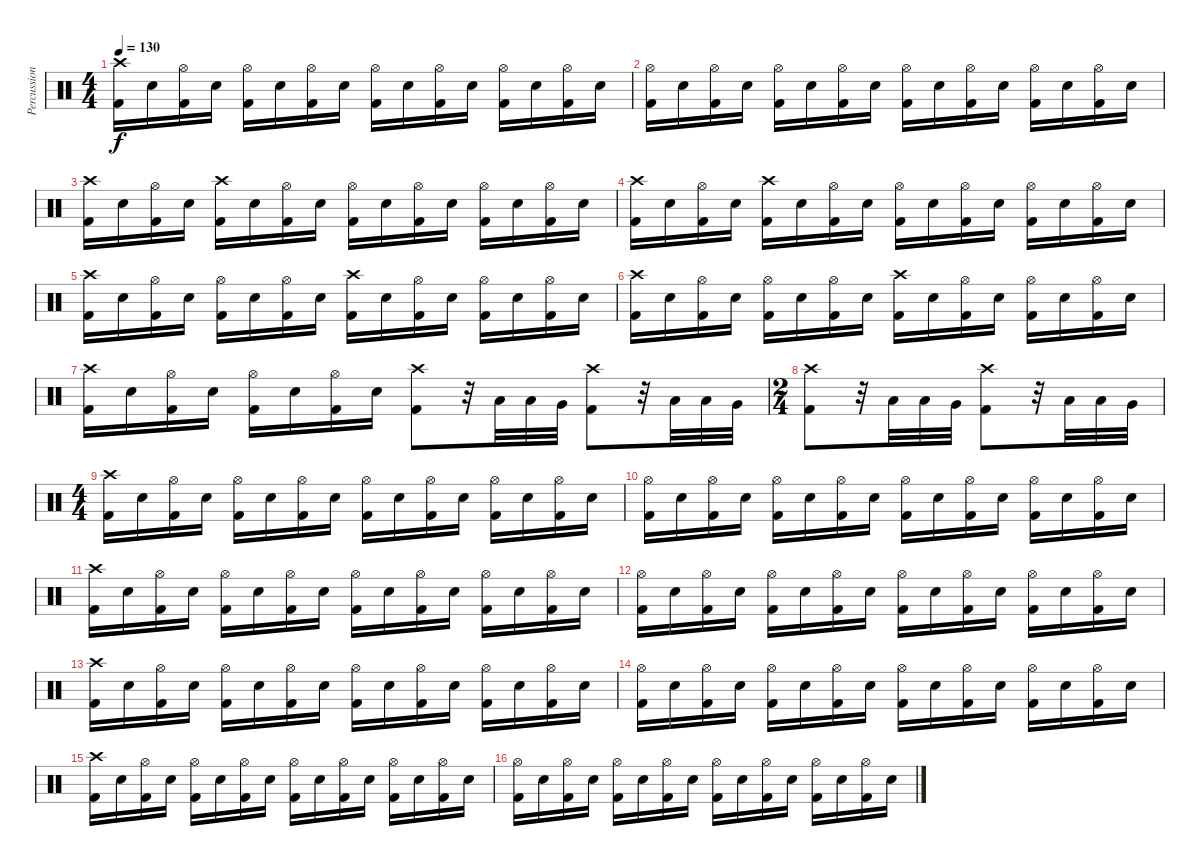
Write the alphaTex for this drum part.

\track ("Percussion" "Percussion") {instrument percussion}
\staff {score}
\articulation defaults
\ts (4 4)
\tempo 130
\clef neutral
\ks c
("Crash high (hit)" "Kick (hit) 2").16{dy f} "Snare (hit) 2".16 ("Hi-Hat (open)" "Kick (hit) 2").16 "Snare (hit) 2".16 ("Hi-Hat (open)" "Kick (hit) 2").16 "Snare (hit) 2".16 ("Hi-Hat (open)" "Kick (hit) 2").16 "Snare (hit) 2".16 ("Hi-Hat (open)" "Kick (hit) 2").16 "Snare (hit) 2".16 ("Hi-Hat (open)" "Kick (hit) 2").16 "Snare (hit) 2".16 ("Hi-Hat (open)" "Kick (hit) 2").16 "Snare (hit) 2".16 ("Hi-Hat (open)" "Kick (hit) 2").16 "Snare (hit) 2".16 |
("Hi-Hat (open)" "Kick (hit) 2").16 "Snare (hit) 2".16 ("Hi-Hat (open)" "Kick (hit) 2").16 "Snare (hit) 2".16 ("Hi-Hat (open)" "Kick (hit) 2").16 "Snare (hit) 2".16 ("Hi-Hat (open)" "Kick (hit) 2").16 "Snare (hit) 2".16 ("Hi-Hat (open)" "Kick (hit) 2").16 "Snare (hit) 2".16 ("Hi-Hat (open)" "Kick (hit) 2").16 "Snare (hit) 2".16 ("Hi-Hat (open)" "Kick (hit) 2").16 "Snare (hit) 2".16 ("Hi-Hat (open)" "Kick (hit) 2").16 "Snare (hit) 2".16 |
("Crash high (hit)" "Kick (hit) 2").16 "Snare (hit) 2".16 ("Hi-Hat (open)" "Kick (hit) 2").16 "Snare (hit) 2".16 ("Crash high (hit)" "Kick (hit) 2").16 "Snare (hit) 2".16 ("Hi-Hat (open)" "Kick (hit) 2").16 "Snare (hit) 2".16 ("Hi-Hat (open)" "Kick (hit) 2").16 "Snare (hit) 2".16 ("Hi-Hat (open)" "Kick (hit) 2").16 "Snare (hit) 2".16 ("Hi-Hat (open)" "Kick (hit) 2").16 "Snare (hit) 2".16 ("Hi-Hat (open)" "Kick (hit) 2").16 "Snare (hit) 2".16 |
("Crash high (hit)" "Kick (hit) 2").16 "Snare (hit) 2".16 ("Hi-Hat (open)" "Kick (hit) 2").16 "Snare (hit) 2".16 ("Crash high (hit)" "Kick (hit) 2").16 "Snare (hit) 2".16 ("Hi-Hat (open)" "Kick (hit) 2").16 "Snare (hit) 2".16 ("Hi-Hat (open)" "Kick (hit) 2").16 "Snare (hit) 2".16 ("Hi-Hat (open)" "Kick (hit) 2").16 "Snare (hit) 2".16 ("Hi-Hat (open)" "Kick (hit) 2").16 "Snare (hit) 2".16 ("Hi-Hat (open)" "Kick (hit) 2").16 "Snare (hit) 2".16 |
("Crash high (hit)" "Kick (hit) 2").16 "Snare (hit) 2".16 ("Hi-Hat (open)" "Kick (hit) 2").16 "Snare (hit) 2".16 ("Hi-Hat (open)" "Kick (hit) 2").16 "Snare (hit) 2".16 ("Hi-Hat (open)" "Kick (hit) 2").16 "Snare (hit) 2".16 ("Crash high (hit)" "Kick (hit) 2").16 "Snare (hit) 2".16 ("Hi-Hat (open)" "Kick (hit) 2").16 "Snare (hit) 2".16 ("Hi-Hat (open)" "Kick (hit) 2").16 "Snare (hit) 2".16 ("Hi-Hat (open)" "Kick (hit) 2").16 "Snare (hit) 2".16 |
("Crash high (hit)" "Kick (hit) 2").16 "Snare (hit) 2".16 ("Hi-Hat (open)" "Kick (hit) 2").16 "Snare (hit) 2".16 ("Hi-Hat (open)" "Kick (hit) 2").16 "Snare (hit) 2".16 ("Hi-Hat (open)" "Kick (hit) 2").16 "Snare (hit) 2".16 ("Crash high (hit)" "Kick (hit) 2").16 "Snare (hit) 2".16 ("Hi-Hat (open)" "Kick (hit) 2").16 "Snare (hit) 2".16 ("Hi-Hat (open)" "Kick (hit) 2").16 "Snare (hit) 2".16 ("Hi-Hat (open)" "Kick (hit) 2").16 "Snare (hit) 2".16 |
("Crash high (hit)" "Kick (hit) 2").16 "Snare (hit) 2".16 ("Hi-Hat (open)" "Kick (hit) 2").16 "Snare (hit) 2".16 ("Hi-Hat (open)" "Kick (hit) 2").16 "Snare (hit) 2".16 ("Hi-Hat (open)" "Kick (hit) 2").16 "Snare (hit) 2".16 ("Crash high (hit)" "Kick (hit) 2").8 r.32 "Low Tom (hit)".32 "Low Tom (hit)".32 "Very Low Tom (hit)".32 ("Crash high (hit)" "Kick (hit) 2").8 r.32 "Low Tom (hit)".32 "Low Tom (hit)".32 "Very Low Tom (hit)".32 |
\ts (2 4)
("Crash high (hit)" "Kick (hit) 2").8 r.32 "Low Tom (hit)".32 "Low Tom (hit)".32 "Very Low Tom (hit)".32 ("Crash high (hit)" "Kick (hit) 2").8 r.32 "Low Tom (hit)".32 "Low Tom (hit)".32 "Very Low Tom (hit)".32 |
\ts (4 4)
("Crash high (hit)" "Kick (hit) 2").16 "Snare (hit) 2".16 ("Hi-Hat (open)" "Kick (hit) 2").16 "Snare (hit) 2".16 ("Hi-Hat (open)" "Kick (hit) 2").16 "Snare (hit) 2".16 ("Hi-Hat (open)" "Kick (hit) 2").16 "Snare (hit) 2".16 ("Hi-Hat (open)" "Kick (hit) 2").16 "Snare (hit) 2".16 ("Hi-Hat (open)" "Kick (hit) 2").16 "Snare (hit) 2".16 ("Hi-Hat (open)" "Kick (hit) 2").16 "Snare (hit) 2".16 ("Hi-Hat (open)" "Kick (hit) 2").16 "Snare (hit) 2".16 |
("Hi-Hat (open)" "Kick (hit) 2").16 "Snare (hit) 2".16 ("Hi-Hat (open)" "Kick (hit) 2").16 "Snare (hit) 2".16 ("Hi-Hat (open)" "Kick (hit) 2").16 "Snare (hit) 2".16 ("Hi-Hat (open)" "Kick (hit) 2").16 "Snare (hit) 2".16 ("Hi-Hat (open)" "Kick (hit) 2").16 "Snare (hit) 2".16 ("Hi-Hat (open)" "Kick (hit) 2").16 "Snare (hit) 2".16 ("Hi-Hat (open)" "Kick (hit) 2").16 "Snare (hit) 2".16 ("Hi-Hat (open)" "Kick (hit) 2").16 "Snare (hit) 2".16 |
("Crash high (hit)" "Kick (hit) 2").16 "Snare (hit) 2".16 ("Hi-Hat (open)" "Kick (hit) 2").16 "Snare (hit) 2".16 ("Hi-Hat (open)" "Kick (hit) 2").16 "Snare (hit) 2".16 ("Hi-Hat (open)" "Kick (hit) 2").16 "Snare (hit) 2".16 ("Hi-Hat (open)" "Kick (hit) 2").16 "Snare (hit) 2".16 ("Hi-Hat (open)" "Kick (hit) 2").16 "Snare (hit) 2".16 ("Hi-Hat (open)" "Kick (hit) 2").16 "Snare (hit) 2".16 ("Hi-Hat (open)" "Kick (hit) 2").16 "Snare (hit) 2".16 |
("Hi-Hat (open)" "Kick (hit) 2").16 "Snare (hit) 2".16 ("Hi-Hat (open)" "Kick (hit) 2").16 "Snare (hit) 2".16 ("Hi-Hat (open)" "Kick (hit) 2").16 "Snare (hit) 2".16 ("Hi-Hat (open)" "Kick (hit) 2").16 "Snare (hit) 2".16 ("Hi-Hat (open)" "Kick (hit) 2").16 "Snare (hit) 2".16 ("Hi-Hat (open)" "Kick (hit) 2").16 "Snare (hit) 2".16 ("Hi-Hat (open)" "Kick (hit) 2").16 "Snare (hit) 2".16 ("Hi-Hat (open)" "Kick (hit) 2").16 "Snare (hit) 2".16 |
("Crash high (hit)" "Kick (hit) 2").16 "Snare (hit) 2".16 ("Hi-Hat (open)" "Kick (hit) 2").16 "Snare (hit) 2".16 ("Hi-Hat (open)" "Kick (hit) 2").16 "Snare (hit) 2".16 ("Hi-Hat (open)" "Kick (hit) 2").16 "Snare (hit) 2".16 ("Hi-Hat (open)" "Kick (hit) 2").16 "Snare (hit) 2".16 ("Hi-Hat (open)" "Kick (hit) 2").16 "Snare (hit) 2".16 ("Hi-Hat (open)" "Kick (hit) 2").16 "Snare (hit) 2".16 ("Hi-Hat (open)" "Kick (hit) 2").16 "Snare (hit) 2".16 |
("Hi-Hat (open)" "Kick (hit) 2").16 "Snare (hit) 2".16 ("Hi-Hat (open)" "Kick (hit) 2").16 "Snare (hit) 2".16 ("Hi-Hat (open)" "Kick (hit) 2").16 "Snare (hit) 2".16 ("Hi-Hat (open)" "Kick (hit) 2").16 "Snare (hit) 2".16 ("Hi-Hat (open)" "Kick (hit) 2").16 "Snare (hit) 2".16 ("Hi-Hat (open)" "Kick (hit) 2").16 "Snare (hit) 2".16 ("Hi-Hat (open)" "Kick (hit) 2").16 "Snare (hit) 2".16 ("Hi-Hat (open)" "Kick (hit) 2").16 "Snare (hit) 2".16 |
("Crash high (hit)" "Kick (hit) 2").16 "Snare (hit) 2".16 ("Hi-Hat (open)" "Kick (hit) 2").16 "Snare (hit) 2".16 ("Hi-Hat (open)" "Kick (hit) 2").16 "Snare (hit) 2".16 ("Hi-Hat (open)" "Kick (hit) 2").16 "Snare (hit) 2".16 ("Hi-Hat (open)" "Kick (hit) 2").16 "Snare (hit) 2".16 ("Hi-Hat (open)" "Kick (hit) 2").16 "Snare (hit) 2".16 ("Hi-Hat (open)" "Kick (hit) 2").16 "Snare (hit) 2".16 ("Hi-Hat (open)" "Kick (hit) 2").16 "Snare (hit) 2".16 |
("Hi-Hat (open)" "Kick (hit) 2").16 "Snare (hit) 2".16 ("Hi-Hat (open)" "Kick (hit) 2").16 "Snare (hit) 2".16 ("Hi-Hat (open)" "Kick (hit) 2").16 "Snare (hit) 2".16 ("Hi-Hat (open)" "Kick (hit) 2").16 "Snare (hit) 2".16 ("Hi-Hat (open)" "Kick (hit) 2").16 "Snare (hit) 2".16 ("Hi-Hat (open)" "Kick (hit) 2").16 "Snare (hit) 2".16 ("Hi-Hat (open)" "Kick (hit) 2").16 "Snare (hit) 2".16 ("Hi-Hat (open)" "Kick (hit) 2").16 "Snare (hit) 2".16
